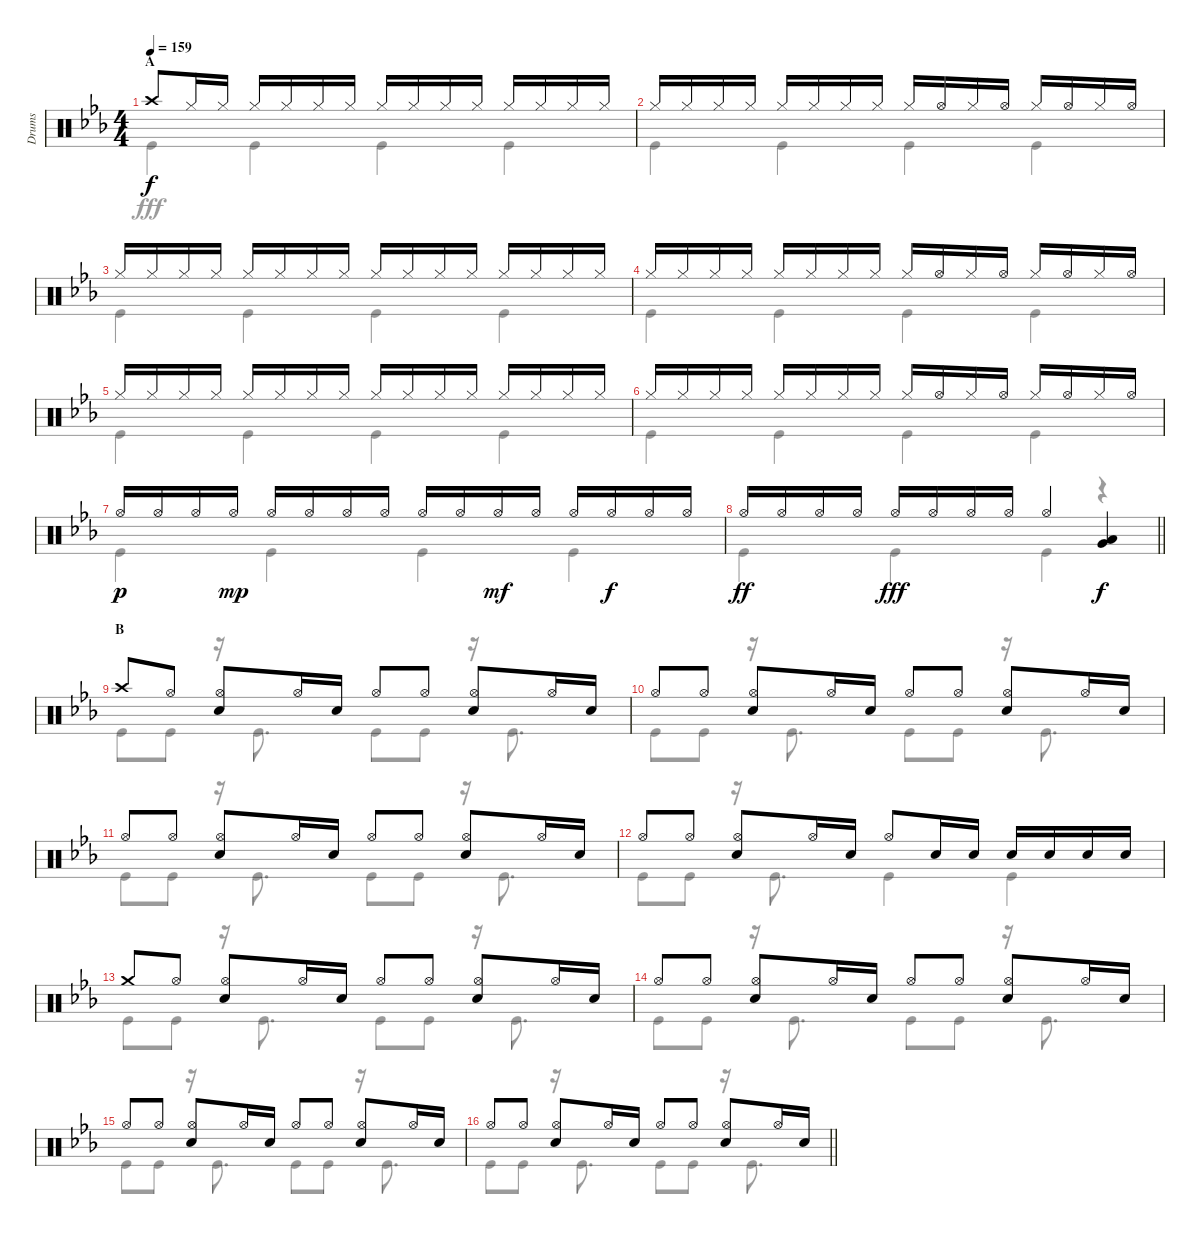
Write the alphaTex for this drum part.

\track ("Drums" "Drums") {instrument percussion}
\staff {score}
\articulation defaults
\voice
\ts (4 4)
\section ("" "A")
\tempo 159
\clef neutral
\ks eb "Crash high (hit)".8{dy f} "Hi-Hat (closed)".16 "Hi-Hat (closed)".16 "Hi-Hat (closed)".16 "Hi-Hat (closed)".16 "Hi-Hat (closed)".16 "Hi-Hat (closed)".16 "Hi-Hat (closed)".16 "Hi-Hat (closed)".16 "Hi-Hat (closed)".16 "Hi-Hat (closed)".16 "Hi-Hat (closed)".16 "Hi-Hat (closed)".16 "Hi-Hat (closed)".16 "Hi-Hat (closed)".16
|
"Hi-Hat (closed)".16 "Hi-Hat (closed)".16 "Hi-Hat (closed)".16 "Hi-Hat (closed)".16 "Hi-Hat (closed)".16 "Hi-Hat (closed)".16 "Hi-Hat (closed)".16 "Hi-Hat (closed)".16 "Hi-Hat (closed)".16 "Hi-Hat (open)".16 "Hi-Hat (closed)".16 "Hi-Hat (open)".16 "Hi-Hat (closed)".16 "Hi-Hat (open)".16 "Hi-Hat (closed)".16 "Hi-Hat (open)".16 |
"Hi-Hat (closed)".16 "Hi-Hat (closed)".16 "Hi-Hat (closed)".16 "Hi-Hat (closed)".16 "Hi-Hat (closed)".16 "Hi-Hat (closed)".16 "Hi-Hat (closed)".16 "Hi-Hat (closed)".16 "Hi-Hat (closed)".16 "Hi-Hat (closed)".16 "Hi-Hat (closed)".16 "Hi-Hat (closed)".16 "Hi-Hat (closed)".16 "Hi-Hat (closed)".16 "Hi-Hat (closed)".16 "Hi-Hat (closed)".16 |
"Hi-Hat (closed)".16 "Hi-Hat (closed)".16 "Hi-Hat (closed)".16 "Hi-Hat (closed)".16 "Hi-Hat (closed)".16 "Hi-Hat (closed)".16 "Hi-Hat (closed)".16 "Hi-Hat (closed)".16 "Hi-Hat (closed)".16 "Hi-Hat (open)".16 "Hi-Hat (closed)".16 "Hi-Hat (open)".16 "Hi-Hat (closed)".16 "Hi-Hat (open)".16 "Hi-Hat (closed)".16 "Hi-Hat (open)".16 |
"Hi-Hat (closed)".16 "Hi-Hat (closed)".16 "Hi-Hat (closed)".16 "Hi-Hat (closed)".16 "Hi-Hat (closed)".16 "Hi-Hat (closed)".16 "Hi-Hat (closed)".16 "Hi-Hat (closed)".16 "Hi-Hat (closed)".16 "Hi-Hat (closed)".16 "Hi-Hat (closed)".16 "Hi-Hat (closed)".16 "Hi-Hat (closed)".16 "Hi-Hat (closed)".16 "Hi-Hat (closed)".16 "Hi-Hat (closed)".16 |
"Hi-Hat (closed)".16 "Hi-Hat (closed)".16 "Hi-Hat (closed)".16 "Hi-Hat (closed)".16 "Hi-Hat (closed)".16 "Hi-Hat (closed)".16 "Hi-Hat (closed)".16 "Hi-Hat (closed)".16 "Hi-Hat (closed)".16 "Hi-Hat (open)".16 "Hi-Hat (closed)".16 "Hi-Hat (open)".16 "Hi-Hat (closed)".16 "Hi-Hat (open)".16 "Hi-Hat (closed)".16 "Hi-Hat (open)".16 |
"Hi-Hat (open)".16{dy p} "Hi-Hat (open)".16 "Hi-Hat (open)".16 "Hi-Hat (open)".16{dy mp} "Hi-Hat (open)".16 "Hi-Hat (open)".16 "Hi-Hat (open)".16 "Hi-Hat (open)".16 "Hi-Hat (open)".16 "Hi-Hat (open)".16 "Hi-Hat (open)".16{dy mf} "Hi-Hat (open)".16 "Hi-Hat (open)".16 "Hi-Hat (open)".16{dy f} "Hi-Hat (open)".16 "Hi-Hat (open)".16 |
\barLineRight lightlight "Hi-Hat (open)".16{dy ff} "Hi-Hat (open)".16 "Hi-Hat (open)".16 "Hi-Hat (open)".16 "Hi-Hat (open)".16{dy fff} "Hi-Hat (open)".16 "Hi-Hat (open)".16 "Hi-Hat (open)".16 "Hi-Hat (open)".4
("Low Tom (hit)" "Very Low Tom (hit)").4{dy f} |
\section ("" "B")
"Crash high (hit)".8 "Hi-Hat (open)".8 ("Hi-Hat (open)" "Snare (hit) 2").8 "Hi-Hat (open)".16 "Snare (hit) 2".16 "Hi-Hat (open)".8 "Hi-Hat (open)".8 ("Hi-Hat (open)" "Snare (hit) 2").8 "Hi-Hat (open)".16 "Snare (hit) 2".16 |
"Hi-Hat (open)".8 "Hi-Hat (open)".8 ("Hi-Hat (open)" "Snare (hit) 2").8 "Hi-Hat (open)".16 "Snare (hit) 2".16 "Hi-Hat (open)".8 "Hi-Hat (open)".8 ("Hi-Hat (open)" "Snare (hit) 2").8 "Hi-Hat (open)".16 "Snare (hit) 2".16 |
"Hi-Hat (open)".8 "Hi-Hat (open)".8 ("Hi-Hat (open)" "Snare (hit) 2").8 "Hi-Hat (open)".16 "Snare (hit) 2".16 "Hi-Hat (open)".8 "Hi-Hat (open)".8 ("Hi-Hat (open)" "Snare (hit) 2").8 "Hi-Hat (open)".16 "Snare (hit) 2".16 |
"Hi-Hat (open)".8 "Hi-Hat (open)".8 ("Hi-Hat (open)" "Snare (hit) 2").8 "Hi-Hat (open)".16 "Snare (hit) 2".16 "Hi-Hat (open)".8 "Snare (hit) 2".16 "Snare (hit) 2".16 "Snare (hit) 2".16 "Snare (hit) 2".16 "Snare (hit) 2".16 "Snare (hit) 2".16 |
"Crash medium (hit)".8 "Hi-Hat (open)".8 ("Hi-Hat (open)" "Snare (hit) 2").8 "Hi-Hat (open)".16 "Snare (hit) 2".16 "Hi-Hat (open)".8 "Hi-Hat (open)".8 ("Hi-Hat (open)" "Snare (hit) 2").8 "Hi-Hat (open)".16 "Snare (hit) 2".16 |
"Hi-Hat (open)".8 "Hi-Hat (open)".8 ("Hi-Hat (open)" "Snare (hit) 2").8 "Hi-Hat (open)".16 "Snare (hit) 2".16 "Hi-Hat (open)".8 "Hi-Hat (open)".8 ("Hi-Hat (open)" "Snare (hit) 2").8 "Hi-Hat (open)".16 "Snare (hit) 2".16 |
"Hi-Hat (open)".8 "Hi-Hat (open)".8 ("Hi-Hat (open)" "Snare (hit) 2").8 "Hi-Hat (open)".16 "Snare (hit) 2".16 "Hi-Hat (open)".8 "Hi-Hat (open)".8 ("Hi-Hat (open)" "Snare (hit) 2").8 "Hi-Hat (open)".16 "Snare (hit) 2".16 |
\barLineRight lightlight "Hi-Hat (open)".8 "Hi-Hat (open)".8
("Hi-Hat (open)" "Snare (hit) 2").8 "Hi-Hat (open)".16 "Snare (hit) 2".16 "Hi-Hat (open)".8 "Hi-Hat (open)".8 ("Hi-Hat (open)" "Snare (hit) 2").8 "Hi-Hat (open)".16 "Snare (hit) 2".16
\voice
\clef neutral
\ottava regular
\simile none
\ks eb "Kick (hit)".4{dy fff} "Kick (hit)".4 "Kick (hit)".4 "Kick (hit)".4
|
"Kick (hit)".4 "Kick (hit)".4 "Kick (hit)".4 "Kick (hit)".4 |
"Kick (hit)".4 "Kick (hit)".4 "Kick (hit)".4 "Kick (hit)".4 |
"Kick (hit)".4 "Kick (hit)".4 "Kick (hit)".4 "Kick (hit)".4 |
"Kick (hit)".4 "Kick (hit)".4 "Kick (hit)".4 "Kick (hit)".4 |
"Kick (hit)".4 "Kick (hit)".4 "Kick (hit)".4 "Kick (hit)".4 |
"Kick (hit)".4 "Kick (hit)".4 "Kick (hit)".4 "Kick (hit)".4 |
\barLineRight lightlight "Kick (hit)".4 "Kick (hit)".4 "Kick (hit)".4
r.4 |
"Kick (hit)".8 "Kick (hit)".8 r.16 "Kick (hit)".8{d} "Kick (hit)".8 "Kick (hit)".8 r.16 "Kick (hit)".8{d} |
"Kick (hit)".8 "Kick (hit)".8 r.16 "Kick (hit)".8{d} "Kick (hit)".8 "Kick (hit)".8 r.16 "Kick (hit)".8{d} |
"Kick (hit)".8 "Kick (hit)".8 r.16 "Kick (hit)".8{d} "Kick (hit)".8 "Kick (hit)".8 r.16 "Kick (hit)".8{d} |
"Kick (hit)".8 "Kick (hit)".8 r.16 "Kick (hit)".8{d} "Kick (hit)".4 "Kick (hit)".4 |
"Kick (hit)".8 "Kick (hit)".8 r.16 "Kick (hit)".8{d} "Kick (hit)".8 "Kick (hit)".8 r.16 "Kick (hit)".8{d} |
"Kick (hit)".8 "Kick (hit)".8 r.16 "Kick (hit)".8{d} "Kick (hit)".8 "Kick (hit)".8 r.16 "Kick (hit)".8{d} |
"Kick (hit)".8 "Kick (hit)".8 r.16 "Kick (hit)".8{d} "Kick (hit)".8 "Kick (hit)".8 r.16 "Kick (hit)".8{d} |
\barLineRight lightlight "Kick (hit)".8 "Kick (hit)".8
r.16 "Kick (hit)".8{d} "Kick (hit)".8 "Kick (hit)".8 r.16 "Kick (hit)".8{d}
